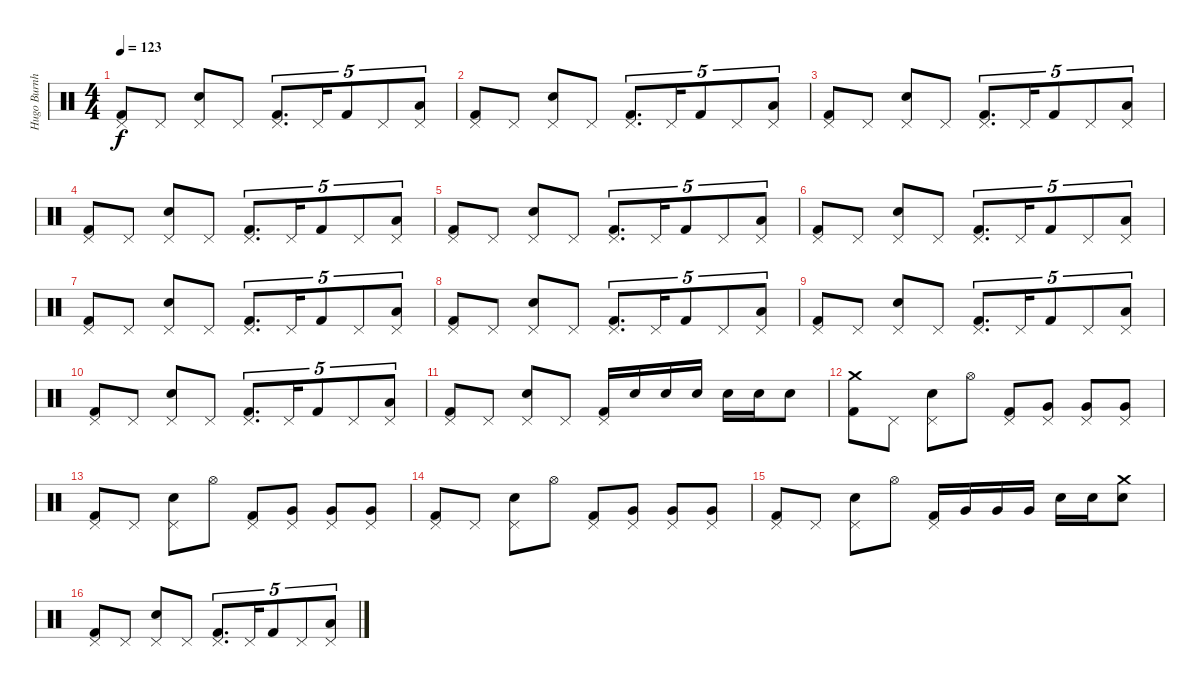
\track ("Hugo Burnham" "Hugo Burnh") {instrument percussion}
\staff {score}
\articulation defaults
\ts (4 4)
\tempo 123
\clef neutral
\ks c
("Pedal Hi-Hat (hit)" "Kick (hit) 2").8{dy f} "Pedal Hi-Hat (hit)".8 ("Pedal Hi-Hat (hit)" "Electric Snare (hit)").8 "Pedal Hi-Hat (hit)".8 ("Pedal Hi-Hat (hit)" "Kick (hit) 2").8{d tu (5 4)} "Pedal Hi-Hat (hit)".16{tu (5 4)} "Kick (hit) 2".8{tu (5 4)} "Pedal Hi-Hat (hit)".8{tu (5 4)} ("Pedal Hi-Hat (hit)" "Low Floor Tom (hit)").8{tu (5 4)} |
("Pedal Hi-Hat (hit)" "Kick (hit) 2").8 "Pedal Hi-Hat (hit)".8 ("Pedal Hi-Hat (hit)" "Electric Snare (hit)").8 "Pedal Hi-Hat (hit)".8 ("Pedal Hi-Hat (hit)" "Kick (hit) 2").8{d tu (5 4)} "Pedal Hi-Hat (hit)".16{tu (5 4)} "Kick (hit) 2".8{tu (5 4)} "Pedal Hi-Hat (hit)".8{tu (5 4)} ("Pedal Hi-Hat (hit)" "Low Floor Tom (hit)").8{tu (5 4)} |
("Pedal Hi-Hat (hit)" "Kick (hit) 2").8 "Pedal Hi-Hat (hit)".8 ("Pedal Hi-Hat (hit)" "Electric Snare (hit)").8 "Pedal Hi-Hat (hit)".8 ("Pedal Hi-Hat (hit)" "Kick (hit) 2").8{d tu (5 4)} "Pedal Hi-Hat (hit)".16{tu (5 4)} "Kick (hit) 2".8{tu (5 4)} "Pedal Hi-Hat (hit)".8{tu (5 4)} ("Pedal Hi-Hat (hit)" "Low Floor Tom (hit)").8{tu (5 4)} |
("Pedal Hi-Hat (hit)" "Kick (hit) 2").8 "Pedal Hi-Hat (hit)".8 ("Pedal Hi-Hat (hit)" "Electric Snare (hit)").8 "Pedal Hi-Hat (hit)".8 ("Pedal Hi-Hat (hit)" "Kick (hit) 2").8{d tu (5 4)} "Pedal Hi-Hat (hit)".16{tu (5 4)} "Kick (hit) 2".8{tu (5 4)} "Pedal Hi-Hat (hit)".8{tu (5 4)} ("Pedal Hi-Hat (hit)" "Low Floor Tom (hit)").8{tu (5 4)} |
("Pedal Hi-Hat (hit)" "Kick (hit) 2").8 "Pedal Hi-Hat (hit)".8 ("Pedal Hi-Hat (hit)" "Electric Snare (hit)").8 "Pedal Hi-Hat (hit)".8 ("Pedal Hi-Hat (hit)" "Kick (hit) 2").8{d tu (5 4)} "Pedal Hi-Hat (hit)".16{tu (5 4)} "Kick (hit) 2".8{tu (5 4)} "Pedal Hi-Hat (hit)".8{tu (5 4)} ("Pedal Hi-Hat (hit)" "Low Floor Tom (hit)").8{tu (5 4)} |
("Pedal Hi-Hat (hit)" "Kick (hit) 2").8 "Pedal Hi-Hat (hit)".8 ("Pedal Hi-Hat (hit)" "Electric Snare (hit)").8 "Pedal Hi-Hat (hit)".8 ("Pedal Hi-Hat (hit)" "Kick (hit) 2").8{d tu (5 4)} "Pedal Hi-Hat (hit)".16{tu (5 4)} "Kick (hit) 2".8{tu (5 4)} "Pedal Hi-Hat (hit)".8{tu (5 4)} ("Pedal Hi-Hat (hit)" "Low Floor Tom (hit)").8{tu (5 4)} |
("Pedal Hi-Hat (hit)" "Kick (hit) 2").8 "Pedal Hi-Hat (hit)".8 ("Pedal Hi-Hat (hit)" "Electric Snare (hit)").8 "Pedal Hi-Hat (hit)".8 ("Pedal Hi-Hat (hit)" "Kick (hit) 2").8{d tu (5 4)} "Pedal Hi-Hat (hit)".16{tu (5 4)} "Kick (hit) 2".8{tu (5 4)} "Pedal Hi-Hat (hit)".8{tu (5 4)} ("Pedal Hi-Hat (hit)" "Low Floor Tom (hit)").8{tu (5 4)} |
("Pedal Hi-Hat (hit)" "Kick (hit) 2").8 "Pedal Hi-Hat (hit)".8 ("Pedal Hi-Hat (hit)" "Electric Snare (hit)").8 "Pedal Hi-Hat (hit)".8 ("Pedal Hi-Hat (hit)" "Kick (hit) 2").8{d tu (5 4)} "Pedal Hi-Hat (hit)".16{tu (5 4)} "Kick (hit) 2".8{tu (5 4)} "Pedal Hi-Hat (hit)".8{tu (5 4)} ("Pedal Hi-Hat (hit)" "Low Floor Tom (hit)").8{tu (5 4)} |
("Pedal Hi-Hat (hit)" "Kick (hit) 2").8 "Pedal Hi-Hat (hit)".8 ("Pedal Hi-Hat (hit)" "Electric Snare (hit)").8 "Pedal Hi-Hat (hit)".8 ("Pedal Hi-Hat (hit)" "Kick (hit) 2").8{d tu (5 4)} "Pedal Hi-Hat (hit)".16{tu (5 4)} "Kick (hit) 2".8{tu (5 4)} "Pedal Hi-Hat (hit)".8{tu (5 4)} ("Pedal Hi-Hat (hit)" "Low Floor Tom (hit)").8{tu (5 4)} |
("Pedal Hi-Hat (hit)" "Kick (hit) 2").8 "Pedal Hi-Hat (hit)".8 ("Pedal Hi-Hat (hit)" "Electric Snare (hit)").8 "Pedal Hi-Hat (hit)".8 ("Pedal Hi-Hat (hit)" "Kick (hit) 2").8{d tu (5 4)} "Pedal Hi-Hat (hit)".16{tu (5 4)} "Kick (hit) 2".8{tu (5 4)} "Pedal Hi-Hat (hit)".8{tu (5 4)} ("Pedal Hi-Hat (hit)" "Low Floor Tom (hit)").8{tu (5 4)} |
("Pedal Hi-Hat (hit)" "Kick (hit) 2").8 "Pedal Hi-Hat (hit)".8 ("Pedal Hi-Hat (hit)" "Electric Snare (hit)").8 "Pedal Hi-Hat (hit)".8 ("Pedal Hi-Hat (hit)" "Kick (hit) 2").16 "Electric Snare (hit)".16 "Electric Snare (hit)".16 "Electric Snare (hit)".16 "Electric Snare (hit)".16 "Electric Snare (hit)".16 "Electric Snare (hit)".8 |
("Crash medium (hit)" "Kick (hit) 2").8 "Pedal Hi-Hat (hit)".8 ("Pedal Hi-Hat (hit)" "Electric Snare (hit)").8 "Hi-Hat (open)".8 ("Pedal Hi-Hat (hit)" "Kick (hit) 2").8 ("Pedal Hi-Hat (hit)" "Very Low Tom (hit)").8 ("Pedal Hi-Hat (hit)" "Very Low Tom (hit)").8 ("Pedal Hi-Hat (hit)" "Very Low Tom (hit)").8 |
("Pedal Hi-Hat (hit)" "Kick (hit) 2").8 "Pedal Hi-Hat (hit)".8 ("Pedal Hi-Hat (hit)" "Electric Snare (hit)").8 "Hi-Hat (open)".8 ("Pedal Hi-Hat (hit)" "Kick (hit) 2").8 ("Pedal Hi-Hat (hit)" "Very Low Tom (hit)").8 ("Pedal Hi-Hat (hit)" "Very Low Tom (hit)").8 ("Pedal Hi-Hat (hit)" "Very Low Tom (hit)").8 |
("Pedal Hi-Hat (hit)" "Kick (hit) 2").8 "Pedal Hi-Hat (hit)".8 ("Pedal Hi-Hat (hit)" "Electric Snare (hit)").8 "Hi-Hat (open)".8 ("Pedal Hi-Hat (hit)" "Kick (hit) 2").8 ("Pedal Hi-Hat (hit)" "Very Low Tom (hit)").8 ("Pedal Hi-Hat (hit)" "Very Low Tom (hit)").8 ("Pedal Hi-Hat (hit)" "Very Low Tom (hit)").8 |
("Pedal Hi-Hat (hit)" "Kick (hit) 2").8 "Pedal Hi-Hat (hit)".8 ("Pedal Hi-Hat (hit)" "Electric Snare (hit)").8 "Hi-Hat (open)".8 ("Pedal Hi-Hat (hit)" "Kick (hit) 2").16 "Very Low Tom (hit)".16 "Very Low Tom (hit)".16 "Very Low Tom (hit)".16 "Electric Snare (hit)".16 "Electric Snare (hit)".16 ("Crash medium (hit)" "Electric Snare (hit)").8 |
("Pedal Hi-Hat (hit)" "Kick (hit) 2").8 "Pedal Hi-Hat (hit)".8 ("Pedal Hi-Hat (hit)" "Electric Snare (hit)").8 "Pedal Hi-Hat (hit)".8 ("Pedal Hi-Hat (hit)" "Kick (hit) 2").8{d tu (5 4)} "Pedal Hi-Hat (hit)".16{tu (5 4)} "Kick (hit) 2".8{tu (5 4)} "Pedal Hi-Hat (hit)".8{tu (5 4)} ("Pedal Hi-Hat (hit)" "Low Floor Tom (hit)").8{tu (5 4)}
